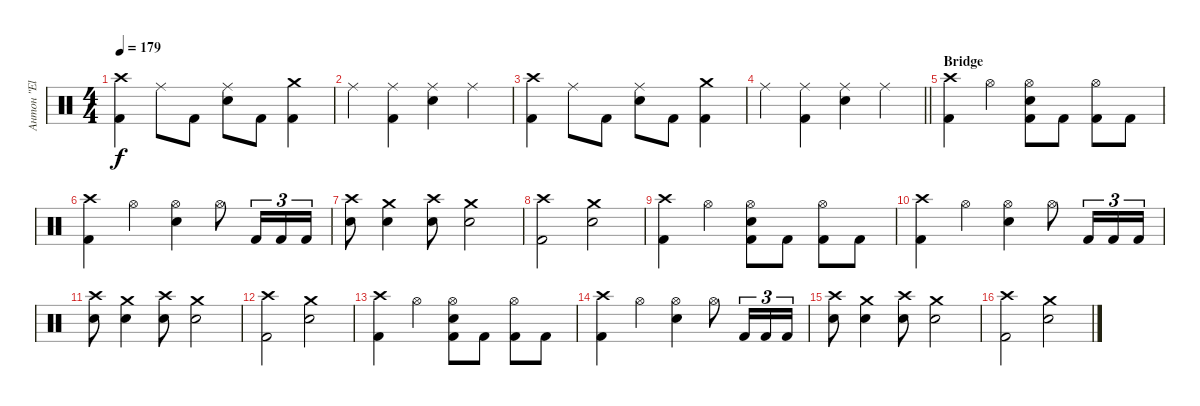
\track ("Антон \"El Bastardo\" Смольянин" "Антон \"El ") {instrument percussion}
\staff {score}
\articulation defaults
\ts (4 4)
\tempo 179
\clef neutral
\ks c
("Crash high (hit)" "Kick (hit) 2").4{dy f} "Ride (middle)".8 "Kick (hit) 2".8 ("Ride (middle)" "Electric Snare (hit)").8 "Kick (hit) 2".8 ("Crash medium (hit)" "Kick (hit) 2").4 |
"Ride (middle)".4 ("Ride (middle)" "Kick (hit) 2").4 ("Ride (middle)" "Electric Snare (hit)").4 "Ride (middle)".4 |
("Crash high (hit)" "Kick (hit) 2").4 "Ride (middle)".8 "Kick (hit) 2".8 ("Ride (middle)" "Electric Snare (hit)").8 "Kick (hit) 2".8 ("Crash medium (hit)" "Kick (hit) 2").4 |
\barLineRight lightlight "Ride (middle)".4
("Ride (middle)" "Kick (hit) 2").4 ("Ride (middle)" "Electric Snare (hit)").4 "Ride (middle)".4 |
\section ("" "Bridge")
("Crash high (hit)" "Kick (hit) 2").4 "Hi-Hat (open)".4 ("Hi-Hat (open)" "Electric Snare (hit)" "Kick (hit) 2").8 "Kick (hit) 2".8 ("Hi-Hat (open)" "Kick (hit) 2").8 "Kick (hit) 2".8 |
("Crash high (hit)" "Kick (hit) 2").4 "Hi-Hat (open)".4 ("Hi-Hat (open)" "Electric Snare (hit)").4 "Hi-Hat (open)".8 "Kick (hit) 2".16{tu (3 2)} "Kick (hit) 2".16{tu (3 2)} "Kick (hit) 2".16{tu (3 2)} |
("Crash high (hit)" "Electric Snare (hit)").8 ("Crash medium (hit)" "Electric Snare (hit)").4 ("Crash high (hit)" "Electric Snare (hit)").8 ("Crash medium (hit)" "Electric Snare (hit)").2 |
("Crash high (hit)" "Kick (hit) 2").2 ("Crash medium (hit)" "Electric Snare (hit)").2 |
("Crash high (hit)" "Kick (hit) 2").4 "Hi-Hat (open)".4 ("Hi-Hat (open)" "Electric Snare (hit)" "Kick (hit) 2").8 "Kick (hit) 2".8 ("Hi-Hat (open)" "Kick (hit) 2").8 "Kick (hit) 2".8 |
("Crash high (hit)" "Kick (hit) 2").4 "Hi-Hat (open)".4 ("Hi-Hat (open)" "Electric Snare (hit)").4 "Hi-Hat (open)".8 "Kick (hit) 2".16{tu (3 2)} "Kick (hit) 2".16{tu (3 2)} "Kick (hit) 2".16{tu (3 2)} |
("Crash high (hit)" "Electric Snare (hit)").8 ("Crash medium (hit)" "Electric Snare (hit)").4 ("Crash high (hit)" "Electric Snare (hit)").8 ("Crash medium (hit)" "Electric Snare (hit)").2 |
("Crash high (hit)" "Kick (hit) 2").2 ("Crash medium (hit)" "Electric Snare (hit)").2 |
("Crash high (hit)" "Kick (hit) 2").4 "Hi-Hat (open)".4 ("Hi-Hat (open)" "Electric Snare (hit)" "Kick (hit) 2").8 "Kick (hit) 2".8 ("Hi-Hat (open)" "Kick (hit) 2").8 "Kick (hit) 2".8 |
("Crash high (hit)" "Kick (hit) 2").4 "Hi-Hat (open)".4 ("Hi-Hat (open)" "Electric Snare (hit)").4 "Hi-Hat (open)".8 "Kick (hit) 2".16{tu (3 2)} "Kick (hit) 2".16{tu (3 2)} "Kick (hit) 2".16{tu (3 2)} |
("Crash high (hit)" "Electric Snare (hit)").8 ("Crash medium (hit)" "Electric Snare (hit)").4 ("Crash high (hit)" "Electric Snare (hit)").8 ("Crash medium (hit)" "Electric Snare (hit)").2 |
("Crash high (hit)" "Kick (hit) 2").2 ("Crash medium (hit)" "Electric Snare (hit)").2
